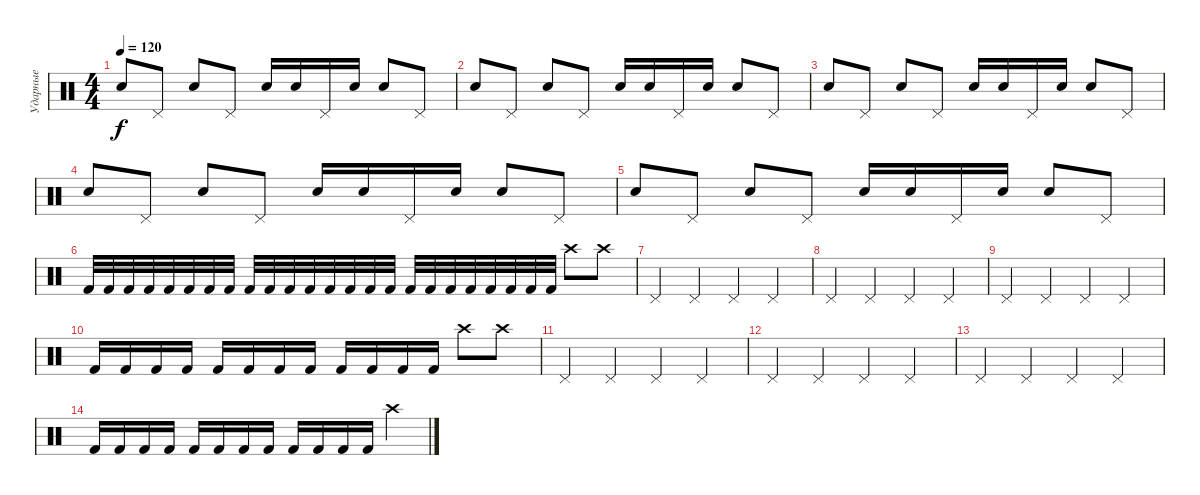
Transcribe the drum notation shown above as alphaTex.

\track ("Ударные" "Ударные") {instrument percussion}
\staff {score}
\articulation defaults
\ts (4 4)
\tempo 120
\clef neutral
\ks c "Snare (hit) 2".8{dy f} "Pedal Hi-Hat (hit)".8 "Snare (hit) 2".8 "Pedal Hi-Hat (hit)".8 "Snare (hit) 2".16 "Snare (hit) 2".16 "Pedal Hi-Hat (hit)".16 "Snare (hit) 2".16 "Snare (hit) 2".8 "Pedal Hi-Hat (hit)".8
|
"Snare (hit) 2".8 "Pedal Hi-Hat (hit)".8 "Snare (hit) 2".8 "Pedal Hi-Hat (hit)".8 "Snare (hit) 2".16 "Snare (hit) 2".16 "Pedal Hi-Hat (hit)".16 "Snare (hit) 2".16 "Snare (hit) 2".8 "Pedal Hi-Hat (hit)".8 |
"Snare (hit) 2".8 "Pedal Hi-Hat (hit)".8 "Snare (hit) 2".8 "Pedal Hi-Hat (hit)".8 "Snare (hit) 2".16 "Snare (hit) 2".16 "Pedal Hi-Hat (hit)".16 "Snare (hit) 2".16 "Snare (hit) 2".8 "Pedal Hi-Hat (hit)".8 |
"Snare (hit) 2".8 "Pedal Hi-Hat (hit)".8 "Snare (hit) 2".8 "Pedal Hi-Hat (hit)".8 "Snare (hit) 2".16 "Snare (hit) 2".16 "Pedal Hi-Hat (hit)".16 "Snare (hit) 2".16 "Snare (hit) 2".8 "Pedal Hi-Hat (hit)".8 |
"Snare (hit) 2".8 "Pedal Hi-Hat (hit)".8 "Snare (hit) 2".8 "Pedal Hi-Hat (hit)".8 "Snare (hit) 2".16 "Snare (hit) 2".16 "Pedal Hi-Hat (hit)".16 "Snare (hit) 2".16 "Snare (hit) 2".8 "Pedal Hi-Hat (hit)".8 |
"Kick (hit) 2".32 "Kick (hit) 2".32 "Kick (hit) 2".32 "Kick (hit) 2".32 "Kick (hit) 2".32 "Kick (hit) 2".32 "Kick (hit) 2".32 "Kick (hit) 2".32 "Kick (hit) 2".32 "Kick (hit) 2".32 "Kick (hit) 2".32 "Kick (hit) 2".32 "Kick (hit) 2".32 "Kick (hit) 2".32 "Kick (hit) 2".32 "Kick (hit) 2".32 "Kick (hit) 2".32 "Kick (hit) 2".32 "Kick (hit) 2".32 "Kick (hit) 2".32 "Kick (hit) 2".32 "Kick (hit) 2".32 "Kick (hit) 2".32 "Kick (hit) 2".32 "Crash high (hit)".8 "Crash high (hit)".8 |
"Pedal Hi-Hat (hit)".4 "Pedal Hi-Hat (hit)".4 "Pedal Hi-Hat (hit)".4 "Pedal Hi-Hat (hit)".4 |
"Pedal Hi-Hat (hit)".4 "Pedal Hi-Hat (hit)".4 "Pedal Hi-Hat (hit)".4 "Pedal Hi-Hat (hit)".4 |
"Pedal Hi-Hat (hit)".4 "Pedal Hi-Hat (hit)".4 "Pedal Hi-Hat (hit)".4 "Pedal Hi-Hat (hit)".4 |
"Kick (hit) 2".16 "Kick (hit) 2".16 "Kick (hit) 2".16 "Kick (hit) 2".16 "Kick (hit) 2".16 "Kick (hit) 2".16 "Kick (hit) 2".16 "Kick (hit) 2".16 "Kick (hit) 2".16 "Kick (hit) 2".16 "Kick (hit) 2".16 "Kick (hit) 2".16 "Crash high (hit)".8 "Crash high (hit)".8 |
"Pedal Hi-Hat (hit)".4 "Pedal Hi-Hat (hit)".4 "Pedal Hi-Hat (hit)".4 "Pedal Hi-Hat (hit)".4 |
"Pedal Hi-Hat (hit)".4 "Pedal Hi-Hat (hit)".4 "Pedal Hi-Hat (hit)".4 "Pedal Hi-Hat (hit)".4 |
"Pedal Hi-Hat (hit)".4 "Pedal Hi-Hat (hit)".4 "Pedal Hi-Hat (hit)".4 "Pedal Hi-Hat (hit)".4 |
"Kick (hit) 2".16 "Kick (hit) 2".16 "Kick (hit) 2".16 "Kick (hit) 2".16 "Kick (hit) 2".16 "Kick (hit) 2".16 "Kick (hit) 2".16 "Kick (hit) 2".16 "Kick (hit) 2".16 "Kick (hit) 2".16 "Kick (hit) 2".16 "Kick (hit) 2".16 "Crash high (hit)".4
